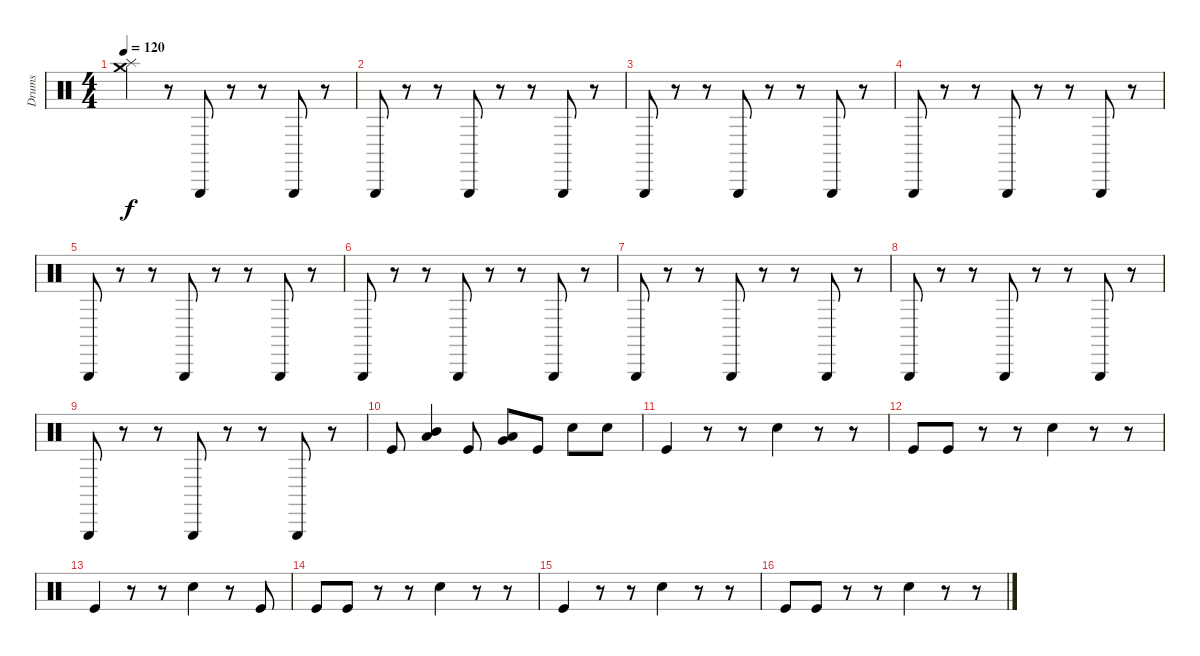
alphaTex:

\track ("Drums" "Drums") {instrument percussion}
\staff {score}
\articulation defaults
\ts (4 4)
\tempo 120
\clef neutral
\ks c
("Splash (hit)" "Crash medium (hit)").4{dy f} r.8 "Triangle (hit)".8 r.8 r.8 "Triangle (hit)".8 r.8 |
"Triangle (hit)".8 r.8 r.8 "Triangle (hit)".8 r.8 r.8 "Triangle (hit)".8 r.8 |
"Triangle (hit)".8 r.8 r.8 "Triangle (hit)".8 r.8 r.8 "Triangle (hit)".8 r.8 |
"Triangle (hit)".8 r.8 r.8 "Triangle (hit)".8 r.8 r.8 "Triangle (hit)".8 r.8 |
"Triangle (hit)".8 r.8 r.8 "Triangle (hit)".8 r.8 r.8 "Triangle (hit)".8 r.8 |
"Triangle (hit)".8 r.8 r.8 "Triangle (hit)".8 r.8 r.8 "Triangle (hit)".8 r.8 |
"Triangle (hit)".8 r.8 r.8 "Triangle (hit)".8 r.8 r.8 "Triangle (hit)".8 r.8 |
"Triangle (hit)".8 r.8 r.8 "Triangle (hit)".8 r.8 r.8 "Triangle (hit)".8 r.8 |
"Triangle (hit)".8 r.8 r.8 "Triangle (hit)".8 r.8 r.8 "Triangle (hit)".8 r.8 |
"Kick (hit)".8 ("Mid Tom (hit)" "Low Tom (hit)").4 "Kick (hit)".8 ("Low Tom (hit)" "Very Low Tom (hit)").8 "Kick (hit)".8 "Snare (hit) 2".8 "Snare (hit) 2".8 |
"Kick (hit)".4 r.8 r.8 "Snare (hit) 2".4 r.8 r.8 |
"Kick (hit)".8 "Kick (hit)".8 r.8 r.8 "Snare (hit) 2".4 r.8 r.8 |
"Kick (hit)".4 r.8 r.8 "Snare (hit) 2".4 r.8 "Kick (hit)".8 |
"Kick (hit)".8 "Kick (hit)".8 r.8 r.8 "Snare (hit) 2".4 r.8 r.8 |
"Kick (hit)".4 r.8 r.8 "Snare (hit) 2".4 r.8 r.8 |
"Kick (hit)".8 "Kick (hit)".8 r.8 r.8 "Snare (hit) 2".4 r.8 r.8
